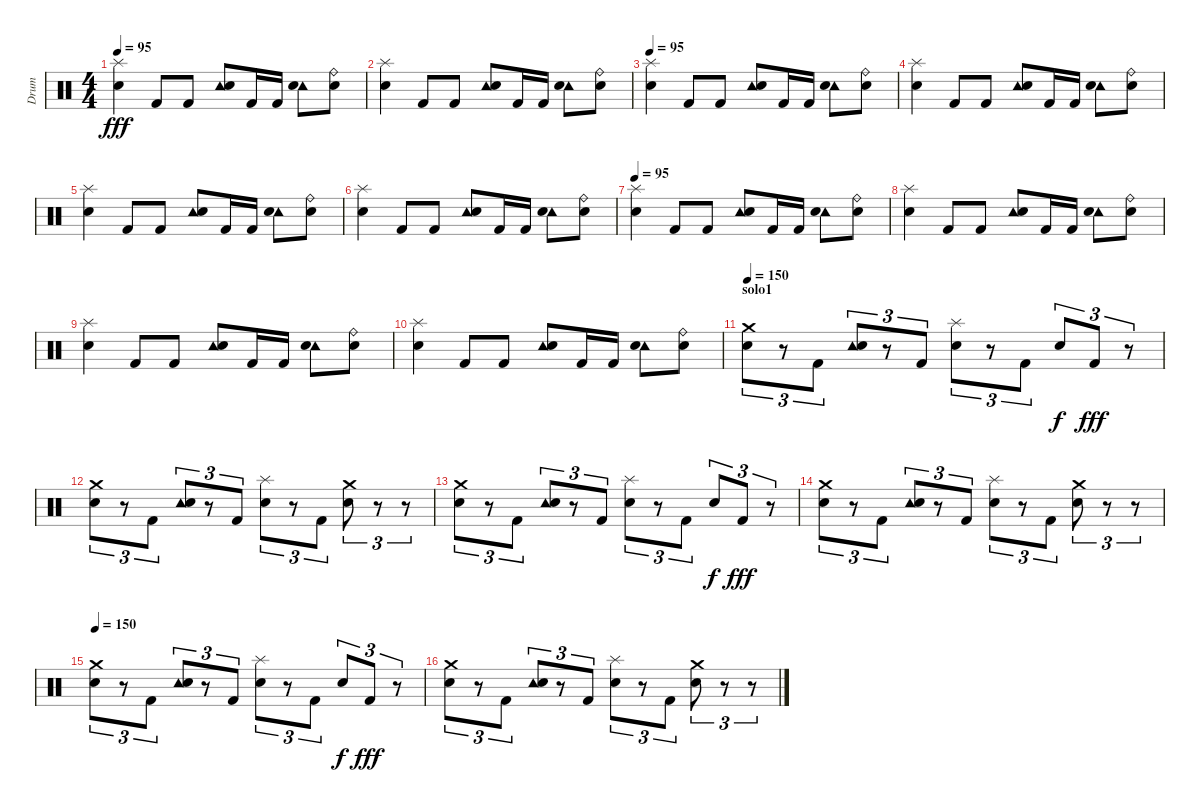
\track ("Drum" "Drum") {instrument percussion}
\staff {score}
\articulation defaults
\ts (4 4)
\tempo 95
\clef neutral
\ks c
("Splash (hit)" "Snare (hit) 2").4{dy fff} "Kick (hit) 2".8 "Kick (hit) 2".8 ("Tambourine (hit)" "Snare (hit) 2").8 "Kick (hit) 2".16 "Kick (hit) 2".16 ("Tambourine (hit)" "Snare (hit) 2").8 ("Snare (hit) 2" "Ride (bell)").8 |
("Splash (hit)" "Snare (hit) 2").4 "Kick (hit) 2".8 "Kick (hit) 2".8 ("Tambourine (hit)" "Snare (hit) 2").8 "Kick (hit) 2".16 "Kick (hit) 2".16 ("Tambourine (hit)" "Snare (hit) 2").8 ("Snare (hit) 2" "Ride (bell)").8 |
\tempo 95
("Splash (hit)" "Snare (hit) 2").4 "Kick (hit) 2".8 "Kick (hit) 2".8 ("Tambourine (hit)" "Snare (hit) 2").8 "Kick (hit) 2".16 "Kick (hit) 2".16 ("Tambourine (hit)" "Snare (hit) 2").8 ("Snare (hit) 2" "Ride (bell)").8 |
("Splash (hit)" "Snare (hit) 2").4 "Kick (hit) 2".8 "Kick (hit) 2".8 ("Tambourine (hit)" "Snare (hit) 2").8 "Kick (hit) 2".16 "Kick (hit) 2".16 ("Tambourine (hit)" "Snare (hit) 2").8 ("Snare (hit) 2" "Ride (bell)").8 |
("Splash (hit)" "Snare (hit) 2").4 "Kick (hit) 2".8 "Kick (hit) 2".8 ("Tambourine (hit)" "Snare (hit) 2").8 "Kick (hit) 2".16 "Kick (hit) 2".16 ("Tambourine (hit)" "Snare (hit) 2").8 ("Snare (hit) 2" "Ride (bell)").8 |
("Splash (hit)" "Snare (hit) 2").4 "Kick (hit) 2".8 "Kick (hit) 2".8 ("Tambourine (hit)" "Snare (hit) 2").8 "Kick (hit) 2".16 "Kick (hit) 2".16 ("Tambourine (hit)" "Snare (hit) 2").8 ("Snare (hit) 2" "Ride (bell)").8 |
\tempo 95
("Splash (hit)" "Snare (hit) 2").4 "Kick (hit) 2".8 "Kick (hit) 2".8 ("Tambourine (hit)" "Snare (hit) 2").8 "Kick (hit) 2".16 "Kick (hit) 2".16 ("Tambourine (hit)" "Snare (hit) 2").8 ("Snare (hit) 2" "Ride (bell)").8 |
("Splash (hit)" "Snare (hit) 2").4 "Kick (hit) 2".8 "Kick (hit) 2".8 ("Tambourine (hit)" "Snare (hit) 2").8 "Kick (hit) 2".16 "Kick (hit) 2".16 ("Tambourine (hit)" "Snare (hit) 2").8 ("Snare (hit) 2" "Ride (bell)").8 |
("Splash (hit)" "Snare (hit) 2").4 "Kick (hit) 2".8 "Kick (hit) 2".8 ("Tambourine (hit)" "Snare (hit) 2").8 "Kick (hit) 2".16 "Kick (hit) 2".16 ("Tambourine (hit)" "Snare (hit) 2").8 ("Snare (hit) 2" "Ride (bell)").8 |
("Splash (hit)" "Snare (hit) 2").4 "Kick (hit) 2".8 "Kick (hit) 2".8 ("Tambourine (hit)" "Snare (hit) 2").8 "Kick (hit) 2".16 "Kick (hit) 2".16 ("Tambourine (hit)" "Snare (hit) 2").8 ("Snare (hit) 2" "Ride (bell)").8 |
\section ("" "solo1")
\tempo 150
("Crash medium (hit)" "Electric Snare (hit)").8{tu (3 2)} r.8{tu (3 2)} "Kick (hit) 2".8{tu (3 2)} ("Tambourine (hit)" "Electric Snare (hit)").8{tu (3 2)} r.8{tu (3 2)} "Kick (hit) 2".8{tu (3 2)} ("Splash (hit)" "Snare (hit) 2").8{tu (3 2)} r.8{tu (3 2)} "Kick (hit) 2".8{tu (3 2)} "Electric Snare (hit)".8{tu (3 2) dy f} "Kick (hit) 2".8{tu (3 2) dy fff} r.8{tu (3 2)} |
("Crash medium (hit)" "Electric Snare (hit)").8{tu (3 2)} r.8{tu (3 2)} "Kick (hit) 2".8{tu (3 2)} ("Tambourine (hit)" "Electric Snare (hit)").8{tu (3 2)} r.8{tu (3 2)} "Kick (hit) 2".8{tu (3 2)} ("Splash (hit)" "Snare (hit) 2").8{tu (3 2)} r.8{tu (3 2)} "Kick (hit) 2".8{tu (3 2)} ("Crash medium (hit)" "Electric Snare (hit)").8{tu (3 2)} r.8{tu (3 2)} r.8{tu (3 2)} |
("Crash medium (hit)" "Electric Snare (hit)").8{tu (3 2)} r.8{tu (3 2)} "Kick (hit) 2".8{tu (3 2)} ("Tambourine (hit)" "Electric Snare (hit)").8{tu (3 2)} r.8{tu (3 2)} "Kick (hit) 2".8{tu (3 2)} ("Splash (hit)" "Snare (hit) 2").8{tu (3 2)} r.8{tu (3 2)} "Kick (hit) 2".8{tu (3 2)} "Electric Snare (hit)".8{tu (3 2) dy f} "Kick (hit) 2".8{tu (3 2) dy fff} r.8{tu (3 2)} |
("Crash medium (hit)" "Electric Snare (hit)").8{tu (3 2)} r.8{tu (3 2)} "Kick (hit) 2".8{tu (3 2)} ("Tambourine (hit)" "Electric Snare (hit)").8{tu (3 2)} r.8{tu (3 2)} "Kick (hit) 2".8{tu (3 2)} ("Splash (hit)" "Snare (hit) 2").8{tu (3 2)} r.8{tu (3 2)} "Kick (hit) 2".8{tu (3 2)} ("Crash medium (hit)" "Electric Snare (hit)").8{tu (3 2)} r.8{tu (3 2)} r.8{tu (3 2)} |
\tempo 150
("Crash medium (hit)" "Electric Snare (hit)").8{tu (3 2)} r.8{tu (3 2)} "Kick (hit) 2".8{tu (3 2)} ("Tambourine (hit)" "Electric Snare (hit)").8{tu (3 2)} r.8{tu (3 2)} "Kick (hit) 2".8{tu (3 2)} ("Splash (hit)" "Snare (hit) 2").8{tu (3 2)} r.8{tu (3 2)} "Kick (hit) 2".8{tu (3 2)} "Electric Snare (hit)".8{tu (3 2) dy f} "Kick (hit) 2".8{tu (3 2) dy fff} r.8{tu (3 2)} |
("Crash medium (hit)" "Electric Snare (hit)").8{tu (3 2)} r.8{tu (3 2)} "Kick (hit) 2".8{tu (3 2)} ("Tambourine (hit)" "Electric Snare (hit)").8{tu (3 2)} r.8{tu (3 2)} "Kick (hit) 2".8{tu (3 2)} ("Splash (hit)" "Snare (hit) 2").8{tu (3 2)} r.8{tu (3 2)} "Kick (hit) 2".8{tu (3 2)} ("Crash medium (hit)" "Electric Snare (hit)").8{tu (3 2)} r.8{tu (3 2)} r.8{tu (3 2)}
